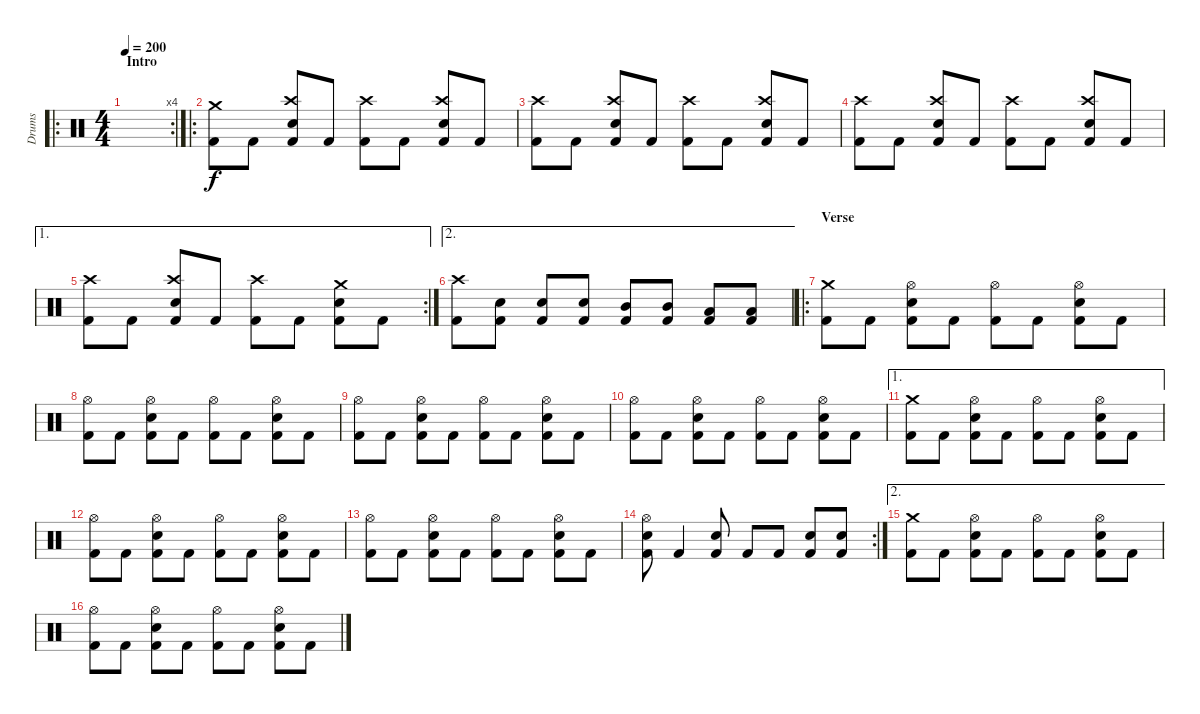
\track ("Drums" "Drums") {instrument percussion}
\staff {score}
\articulation defaults
\ro
\rc 4
\ts (4 4)
\section ("" "Intro")
\tempo 200
\clef neutral
\ks c
|
\ro
("Crash medium (hit)" "Kick (hit) 2").8 "Kick (hit) 2".8 ("Crash high (hit)" "Electric Snare (hit)" "Kick (hit) 2").8 "Kick (hit) 2".8 ("Crash high (hit)" "Kick (hit) 2").8 "Kick (hit) 2".8 ("Crash high (hit)" "Electric Snare (hit)" "Kick (hit) 2").8 "Kick (hit) 2".8 |
("Crash high (hit)" "Kick (hit) 2").8 "Kick (hit) 2".8 ("Crash high (hit)" "Electric Snare (hit)" "Kick (hit) 2").8 "Kick (hit) 2".8 ("Crash high (hit)" "Kick (hit) 2").8 "Kick (hit) 2".8 ("Crash high (hit)" "Electric Snare (hit)" "Kick (hit) 2").8 "Kick (hit) 2".8 |
("Crash high (hit)" "Kick (hit) 2").8 "Kick (hit) 2".8 ("Crash high (hit)" "Electric Snare (hit)" "Kick (hit) 2").8 "Kick (hit) 2".8 ("Crash high (hit)" "Kick (hit) 2").8 "Kick (hit) 2".8 ("Crash high (hit)" "Electric Snare (hit)" "Kick (hit) 2").8 "Kick (hit) 2".8 |
\ae 1
\rc 2
("Crash high (hit)" "Kick (hit) 2").8 "Kick (hit) 2".8 ("Crash high (hit)" "Electric Snare (hit)" "Kick (hit) 2").8 "Kick (hit) 2".8 ("Crash high (hit)" "Kick (hit) 2").8 "Kick (hit) 2".8 ("Crash medium (hit)" "Electric Snare (hit)" "Kick (hit) 2").8 "Kick (hit) 2".8 |
\ae 2
("Crash high (hit)" "Kick (hit) 2").8 ("Electric Snare (hit)" "Kick (hit) 2").8 ("Electric Snare (hit)" "Kick (hit) 2").8 ("Electric Snare (hit)" "Kick (hit) 2").8 ("Mid Tom (hit)" "Kick (hit) 2").8 ("Mid Tom (hit)" "Kick (hit) 2").8 ("Low Tom (hit)" "Kick (hit) 2").8 ("Low Tom (hit)" "Kick (hit) 2").8 |
\ro
\section ("" "Verse")
("Crash medium (hit)" "Kick (hit) 2").8 "Kick (hit) 2".8 ("Hi-Hat (open)" "Electric Snare (hit)" "Kick (hit) 2").8 "Kick (hit) 2".8 ("Hi-Hat (open)" "Kick (hit) 2").8 "Kick (hit) 2".8 ("Hi-Hat (open)" "Electric Snare (hit)" "Kick (hit) 2").8 "Kick (hit) 2".8 |
("Hi-Hat (open)" "Kick (hit) 2").8 "Kick (hit) 2".8 ("Hi-Hat (open)" "Electric Snare (hit)" "Kick (hit) 2").8 "Kick (hit) 2".8 ("Hi-Hat (open)" "Kick (hit) 2").8 "Kick (hit) 2".8 ("Hi-Hat (open)" "Electric Snare (hit)" "Kick (hit) 2").8 "Kick (hit) 2".8 |
("Hi-Hat (open)" "Kick (hit) 2").8 "Kick (hit) 2".8 ("Hi-Hat (open)" "Electric Snare (hit)" "Kick (hit) 2").8 "Kick (hit) 2".8 ("Hi-Hat (open)" "Kick (hit) 2").8 "Kick (hit) 2".8 ("Hi-Hat (open)" "Electric Snare (hit)" "Kick (hit) 2").8 "Kick (hit) 2".8 |
("Hi-Hat (open)" "Kick (hit) 2").8 "Kick (hit) 2".8 ("Hi-Hat (open)" "Electric Snare (hit)" "Kick (hit) 2").8 "Kick (hit) 2".8 ("Hi-Hat (open)" "Kick (hit) 2").8 "Kick (hit) 2".8 ("Hi-Hat (open)" "Electric Snare (hit)" "Kick (hit) 2").8 "Kick (hit) 2".8 |
\ae 1
("Crash medium (hit)" "Kick (hit) 2").8 "Kick (hit) 2".8 ("Hi-Hat (open)" "Electric Snare (hit)" "Kick (hit) 2").8 "Kick (hit) 2".8 ("Hi-Hat (open)" "Kick (hit) 2").8 "Kick (hit) 2".8 ("Hi-Hat (open)" "Electric Snare (hit)" "Kick (hit) 2").8 "Kick (hit) 2".8 |
("Hi-Hat (open)" "Kick (hit) 2").8 "Kick (hit) 2".8 ("Hi-Hat (open)" "Electric Snare (hit)" "Kick (hit) 2").8 "Kick (hit) 2".8 ("Hi-Hat (open)" "Kick (hit) 2").8 "Kick (hit) 2".8 ("Hi-Hat (open)" "Electric Snare (hit)" "Kick (hit) 2").8 "Kick (hit) 2".8 |
("Hi-Hat (open)" "Kick (hit) 2").8 "Kick (hit) 2".8 ("Hi-Hat (open)" "Electric Snare (hit)" "Kick (hit) 2").8 "Kick (hit) 2".8 ("Hi-Hat (open)" "Kick (hit) 2").8 "Kick (hit) 2".8 ("Hi-Hat (open)" "Electric Snare (hit)" "Kick (hit) 2").8 "Kick (hit) 2".8 |
\rc 2
("Hi-Hat (open)" "Electric Snare (hit)" "Kick (hit) 2").8 "Kick (hit) 2".4 ("Electric Snare (hit)" "Kick (hit) 2").8 "Kick (hit) 2".8 "Kick (hit) 2".8 ("Electric Snare (hit)" "Kick (hit) 2").8 ("Electric Snare (hit)" "Kick (hit) 2").8 |
\ae 2
("Crash medium (hit)" "Kick (hit) 2").8 "Kick (hit) 2".8 ("Hi-Hat (open)" "Electric Snare (hit)" "Kick (hit) 2").8 "Kick (hit) 2".8 ("Hi-Hat (open)" "Kick (hit) 2").8 "Kick (hit) 2".8 ("Hi-Hat (open)" "Electric Snare (hit)" "Kick (hit) 2").8 "Kick (hit) 2".8 |
("Hi-Hat (open)" "Kick (hit) 2").8 "Kick (hit) 2".8 ("Hi-Hat (open)" "Electric Snare (hit)" "Kick (hit) 2").8 "Kick (hit) 2".8 ("Hi-Hat (open)" "Kick (hit) 2").8 "Kick (hit) 2".8 ("Hi-Hat (open)" "Electric Snare (hit)" "Kick (hit) 2").8 "Kick (hit) 2".8
